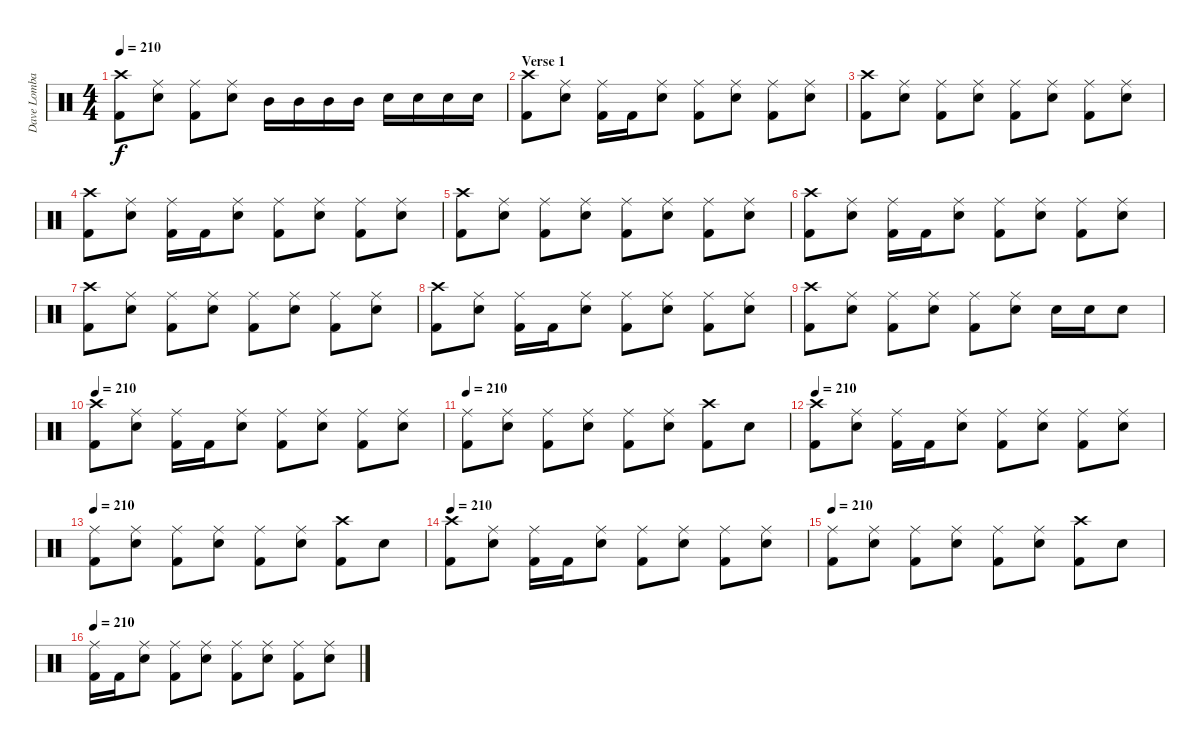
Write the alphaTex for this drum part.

\track ("Dave Lombardo" "Dave Lomba") {instrument percussion}
\staff {score}
\articulation defaults
\ts (4 4)
\tempo 210
\clef neutral
\ks c
("Crash high (hit)" "Kick (hit) 2").8{dy f} ("Ride (middle)" "Snare (hit) 2").8 ("Ride (middle)" "Kick (hit) 2").8 ("Ride (middle)" "Snare (hit) 2").8 "Mid Tom (hit)".16 "Mid Tom (hit)".16 "Mid Tom (hit)".16 "Mid Tom (hit)".16 "Snare (hit) 2".16 "Snare (hit) 2".16 "Snare (hit) 2".16 "Snare (hit) 2".16 |
\section ("" "Verse 1")
("Crash high (hit)" "Kick (hit) 2").8 ("Ride (middle)" "Snare (hit) 2").8 ("Ride (middle)" "Kick (hit) 2").16 "Kick (hit) 2".16 ("Ride (middle)" "Snare (hit) 2").8 ("Ride (middle)" "Kick (hit) 2").8 ("Ride (middle)" "Snare (hit) 2").8 ("Ride (middle)" "Kick (hit) 2").8 ("Ride (middle)" "Snare (hit) 2").8 |
("Crash high (hit)" "Kick (hit) 2").8 ("Ride (middle)" "Snare (hit) 2").8 ("Ride (middle)" "Kick (hit) 2").8 ("Ride (middle)" "Snare (hit) 2").8 ("Ride (middle)" "Kick (hit) 2").8 ("Ride (middle)" "Snare (hit) 2").8 ("Ride (middle)" "Kick (hit) 2").8 ("Ride (middle)" "Snare (hit) 2").8 |
("Crash high (hit)" "Kick (hit) 2").8 ("Ride (middle)" "Snare (hit) 2").8 ("Ride (middle)" "Kick (hit) 2").16 "Kick (hit) 2".16 ("Ride (middle)" "Snare (hit) 2").8 ("Ride (middle)" "Kick (hit) 2").8 ("Ride (middle)" "Snare (hit) 2").8 ("Ride (middle)" "Kick (hit) 2").8 ("Ride (middle)" "Snare (hit) 2").8 |
("Crash high (hit)" "Kick (hit) 2").8 ("Ride (middle)" "Snare (hit) 2").8 ("Ride (middle)" "Kick (hit) 2").8 ("Ride (middle)" "Snare (hit) 2").8 ("Ride (middle)" "Kick (hit) 2").8 ("Ride (middle)" "Snare (hit) 2").8 ("Ride (middle)" "Kick (hit) 2").8 ("Ride (middle)" "Snare (hit) 2").8 |
("Crash high (hit)" "Kick (hit) 2").8 ("Ride (middle)" "Snare (hit) 2").8 ("Ride (middle)" "Kick (hit) 2").16 "Kick (hit) 2".16 ("Ride (middle)" "Snare (hit) 2").8 ("Ride (middle)" "Kick (hit) 2").8 ("Ride (middle)" "Snare (hit) 2").8 ("Ride (middle)" "Kick (hit) 2").8 ("Ride (middle)" "Snare (hit) 2").8 |
("Crash high (hit)" "Kick (hit) 2").8 ("Ride (middle)" "Snare (hit) 2").8 ("Ride (middle)" "Kick (hit) 2").8 ("Ride (middle)" "Snare (hit) 2").8 ("Ride (middle)" "Kick (hit) 2").8 ("Ride (middle)" "Snare (hit) 2").8 ("Ride (middle)" "Kick (hit) 2").8 ("Ride (middle)" "Snare (hit) 2").8 |
("Crash high (hit)" "Kick (hit) 2").8 ("Ride (middle)" "Snare (hit) 2").8 ("Ride (middle)" "Kick (hit) 2").16 "Kick (hit) 2".16 ("Ride (middle)" "Snare (hit) 2").8 ("Ride (middle)" "Kick (hit) 2").8 ("Ride (middle)" "Snare (hit) 2").8 ("Ride (middle)" "Kick (hit) 2").8 ("Ride (middle)" "Snare (hit) 2").8 |
("Crash high (hit)" "Kick (hit) 2").8 ("Ride (middle)" "Snare (hit) 2").8 ("Ride (middle)" "Kick (hit) 2").8 ("Ride (middle)" "Snare (hit) 2").8 ("Ride (middle)" "Kick (hit) 2").8 ("Ride (middle)" "Snare (hit) 2").8 "Snare (hit) 2".16 "Snare (hit) 2".16 "Snare (hit) 2".8 |
\tempo 210
("Crash high (hit)" "Kick (hit) 2").8 ("Ride (middle)" "Snare (hit) 2").8 ("Ride (middle)" "Kick (hit) 2").16 "Kick (hit) 2".16 ("Ride (middle)" "Snare (hit) 2").8 ("Ride (middle)" "Kick (hit) 2").8 ("Ride (middle)" "Snare (hit) 2").8 ("Ride (middle)" "Kick (hit) 2").8 ("Ride (middle)" "Snare (hit) 2").8 |
\tempo 210
("Ride (middle)" "Kick (hit) 2").8 ("Ride (middle)" "Snare (hit) 2").8 ("Ride (middle)" "Kick (hit) 2").8 ("Ride (middle)" "Snare (hit) 2").8 ("Ride (middle)" "Kick (hit) 2").8 ("Ride (middle)" "Snare (hit) 2").8 ("Crash high (hit)" "Kick (hit) 2").8 "Snare (hit) 2".8 |
\tempo 210
("Crash high (hit)" "Kick (hit) 2").8 ("Ride (middle)" "Snare (hit) 2").8 ("Ride (middle)" "Kick (hit) 2").16 "Kick (hit) 2".16 ("Ride (middle)" "Snare (hit) 2").8 ("Ride (middle)" "Kick (hit) 2").8 ("Ride (middle)" "Snare (hit) 2").8 ("Ride (middle)" "Kick (hit) 2").8 ("Ride (middle)" "Snare (hit) 2").8 |
\tempo 210
("Ride (middle)" "Kick (hit) 2").8 ("Ride (middle)" "Snare (hit) 2").8 ("Ride (middle)" "Kick (hit) 2").8 ("Ride (middle)" "Snare (hit) 2").8 ("Ride (middle)" "Kick (hit) 2").8 ("Ride (middle)" "Snare (hit) 2").8 ("Crash high (hit)" "Kick (hit) 2").8 "Snare (hit) 2".8 |
\tempo 210
("Crash high (hit)" "Kick (hit) 2").8 ("Ride (middle)" "Snare (hit) 2").8 ("Ride (middle)" "Kick (hit) 2").16 "Kick (hit) 2".16 ("Ride (middle)" "Snare (hit) 2").8 ("Ride (middle)" "Kick (hit) 2").8 ("Ride (middle)" "Snare (hit) 2").8 ("Ride (middle)" "Kick (hit) 2").8 ("Ride (middle)" "Snare (hit) 2").8 |
\tempo 210
("Ride (middle)" "Kick (hit) 2").8 ("Ride (middle)" "Snare (hit) 2").8 ("Ride (middle)" "Kick (hit) 2").8 ("Ride (middle)" "Snare (hit) 2").8 ("Ride (middle)" "Kick (hit) 2").8 ("Ride (middle)" "Snare (hit) 2").8 ("Crash high (hit)" "Kick (hit) 2").8 "Snare (hit) 2".8 |
\tempo 210
("Ride (middle)" "Kick (hit) 2").16 "Kick (hit) 2".16 ("Ride (middle)" "Snare (hit) 2").8 ("Ride (middle)" "Kick (hit) 2").8 ("Ride (middle)" "Snare (hit) 2").8 ("Ride (middle)" "Kick (hit) 2").8 ("Ride (middle)" "Snare (hit) 2").8 ("Ride (middle)" "Kick (hit) 2").8 ("Ride (middle)" "Snare (hit) 2").8
